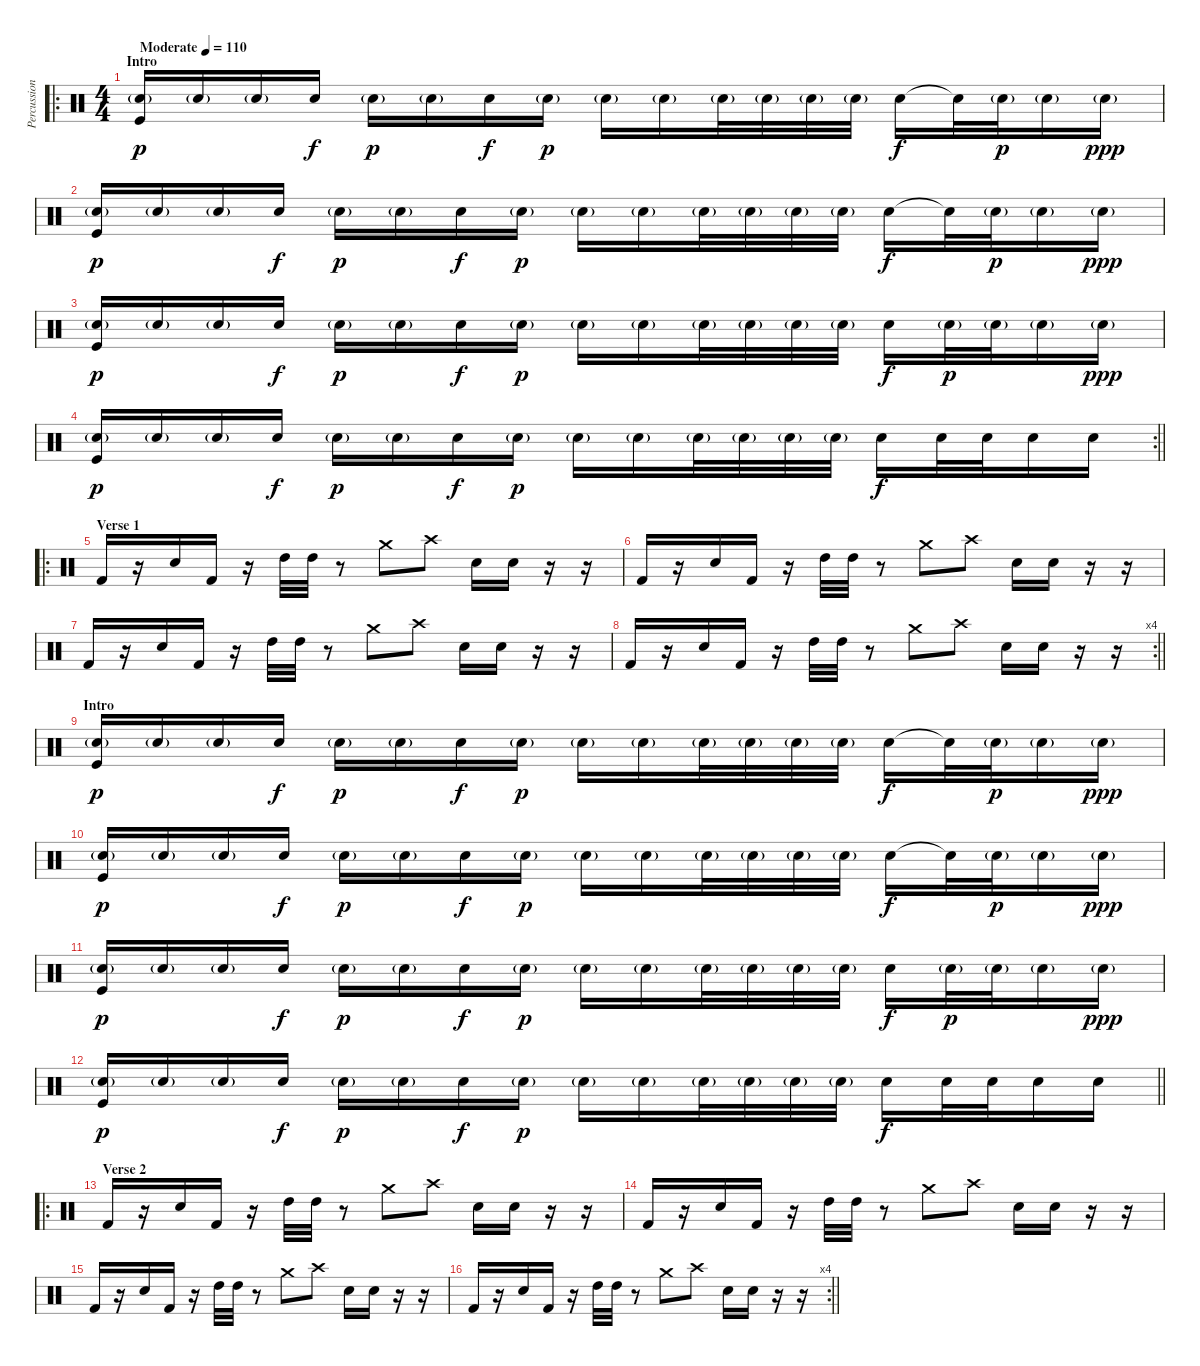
\track ("Percussion" "Percussion") {instrument percussion}
\staff {score}
\articulation defaults
\ro
\ts (4 4)
\section ("" "Intro")
\tempo (110 "Moderate")
\clef neutral
\ks c
("Electric Snare (hit)"{g} "Kick (hit)").16{dy p} "Electric Snare (hit)"{g}.16 "Electric Snare (hit)"{g}.16 "Electric Snare (hit)".16{dy f} "Electric Snare (hit)"{g}.16{dy p} "Electric Snare (hit)"{g}.16 "Electric Snare (hit)".16{dy f} "Electric Snare (hit)"{g}.16{dy p} "Electric Snare (hit)"{g}.16 "Electric Snare (hit)"{g}.16 "Electric Snare (hit)"{g}.32 "Electric Snare (hit)"{g}.32 "Electric Snare (hit)"{g}.32 "Electric Snare (hit)"{g}.32 "Electric Snare (hit)".16{dy f} "Electric Snare (hit)"{t}.32 "Electric Snare (hit)"{g}.32{dy p} "Electric Snare (hit)"{g}.16 "Electric Snare (hit)"{g}.16{dy ppp} |
("Electric Snare (hit)"{g} "Kick (hit)").16{dy p} "Electric Snare (hit)"{g}.16 "Electric Snare (hit)"{g}.16 "Electric Snare (hit)".16{dy f} "Electric Snare (hit)"{g}.16{dy p} "Electric Snare (hit)"{g}.16 "Electric Snare (hit)".16{dy f} "Electric Snare (hit)"{g}.16{dy p} "Electric Snare (hit)"{g}.16 "Electric Snare (hit)"{g}.16 "Electric Snare (hit)"{g}.32 "Electric Snare (hit)"{g}.32 "Electric Snare (hit)"{g}.32 "Electric Snare (hit)"{g}.32 "Electric Snare (hit)".16{dy f} "Electric Snare (hit)"{t}.32 "Electric Snare (hit)"{g}.32{dy p} "Electric Snare (hit)"{g}.16 "Electric Snare (hit)"{g}.16{dy ppp} |
("Electric Snare (hit)"{g} "Kick (hit)").16{dy p} "Electric Snare (hit)"{g}.16 "Electric Snare (hit)"{g}.16 "Electric Snare (hit)".16{dy f} "Electric Snare (hit)"{g}.16{dy p} "Electric Snare (hit)"{g}.16 "Electric Snare (hit)".16{dy f} "Electric Snare (hit)"{g}.16{dy p} "Electric Snare (hit)"{g}.16 "Electric Snare (hit)"{g}.16 "Electric Snare (hit)"{g}.32 "Electric Snare (hit)"{g}.32 "Electric Snare (hit)"{g}.32 "Electric Snare (hit)"{g}.32 "Electric Snare (hit)".16{dy f} "Electric Snare (hit)"{g}.32{dy p} "Electric Snare (hit)"{g}.32 "Electric Snare (hit)"{g}.16 "Electric Snare (hit)"{g}.16{dy ppp} |
\rc 2
\barLineRight lightlight
("Electric Snare (hit)"{g} "Kick (hit)").16{dy p} "Electric Snare (hit)"{g}.16 "Electric Snare (hit)"{g}.16 "Electric Snare (hit)".16{dy f} "Electric Snare (hit)"{g}.16{dy p} "Electric Snare (hit)"{g}.16 "Electric Snare (hit)".16{dy f} "Electric Snare (hit)"{g}.16{dy p} "Electric Snare (hit)"{g}.16 "Electric Snare (hit)"{g}.16 "Electric Snare (hit)"{g}.32 "Electric Snare (hit)"{g}.32 "Electric Snare (hit)"{g}.32 "Electric Snare (hit)"{g}.32 "Electric Snare (hit)".16{dy f} "Electric Snare (hit)".32 "Electric Snare (hit)".32 "Electric Snare (hit)".16 "Electric Snare (hit)".16 |
\ro
\section ("" "Verse 1")
"Kick (hit) 2".16 r.16 "Electric Snare (hit)".16 "Kick (hit) 2".16 r.16 "High Tom (hit)".32 "High Tom (hit)".32 r.8 "Crash medium (hit)".8 "Crash high (hit)".8 "Electric Snare (hit)".16 "Electric Snare (hit)".16 r.16 r.16 |
"Kick (hit) 2".16 r.16 "Electric Snare (hit)".16 "Kick (hit) 2".16 r.16 "High Tom (hit)".32 "High Tom (hit)".32 r.8 "Crash medium (hit)".8 "Crash high (hit)".8 "Electric Snare (hit)".16 "Electric Snare (hit)".16 r.16 r.16 |
"Kick (hit) 2".16 r.16 "Electric Snare (hit)".16 "Kick (hit) 2".16 r.16 "High Tom (hit)".32 "High Tom (hit)".32 r.8 "Crash medium (hit)".8 "Crash high (hit)".8 "Electric Snare (hit)".16 "Electric Snare (hit)".16 r.16 r.16 |
\rc 4
\barLineRight lightlight "Kick (hit) 2".16
r.16 "Electric Snare (hit)".16 "Kick (hit) 2".16 r.16 "High Tom (hit)".32 "High Tom (hit)".32 r.8 "Crash medium (hit)".8 "Crash high (hit)".8 "Electric Snare (hit)".16 "Electric Snare (hit)".16 r.16 r.16 |
\section ("" "Intro ")
("Electric Snare (hit)"{g} "Kick (hit)").16{dy p} "Electric Snare (hit)"{g}.16 "Electric Snare (hit)"{g}.16 "Electric Snare (hit)".16{dy f} "Electric Snare (hit)"{g}.16{dy p} "Electric Snare (hit)"{g}.16 "Electric Snare (hit)".16{dy f} "Electric Snare (hit)"{g}.16{dy p} "Electric Snare (hit)"{g}.16 "Electric Snare (hit)"{g}.16 "Electric Snare (hit)"{g}.32 "Electric Snare (hit)"{g}.32 "Electric Snare (hit)"{g}.32 "Electric Snare (hit)"{g}.32 "Electric Snare (hit)".16{dy f} "Electric Snare (hit)"{t}.32 "Electric Snare (hit)"{g}.32{dy p} "Electric Snare (hit)"{g}.16 "Electric Snare (hit)"{g}.16{dy ppp} |
("Electric Snare (hit)"{g} "Kick (hit)").16{dy p} "Electric Snare (hit)"{g}.16 "Electric Snare (hit)"{g}.16 "Electric Snare (hit)".16{dy f} "Electric Snare (hit)"{g}.16{dy p} "Electric Snare (hit)"{g}.16 "Electric Snare (hit)".16{dy f} "Electric Snare (hit)"{g}.16{dy p} "Electric Snare (hit)"{g}.16 "Electric Snare (hit)"{g}.16 "Electric Snare (hit)"{g}.32 "Electric Snare (hit)"{g}.32 "Electric Snare (hit)"{g}.32 "Electric Snare (hit)"{g}.32 "Electric Snare (hit)".16{dy f} "Electric Snare (hit)"{t}.32 "Electric Snare (hit)"{g}.32{dy p} "Electric Snare (hit)"{g}.16 "Electric Snare (hit)"{g}.16{dy ppp} |
("Electric Snare (hit)"{g} "Kick (hit)").16{dy p} "Electric Snare (hit)"{g}.16 "Electric Snare (hit)"{g}.16 "Electric Snare (hit)".16{dy f} "Electric Snare (hit)"{g}.16{dy p} "Electric Snare (hit)"{g}.16 "Electric Snare (hit)".16{dy f} "Electric Snare (hit)"{g}.16{dy p} "Electric Snare (hit)"{g}.16 "Electric Snare (hit)"{g}.16 "Electric Snare (hit)"{g}.32 "Electric Snare (hit)"{g}.32 "Electric Snare (hit)"{g}.32 "Electric Snare (hit)"{g}.32 "Electric Snare (hit)".16{dy f} "Electric Snare (hit)"{g}.32{dy p} "Electric Snare (hit)"{g}.32 "Electric Snare (hit)"{g}.16 "Electric Snare (hit)"{g}.16{dy ppp} |
\barLineRight lightlight
("Electric Snare (hit)"{g} "Kick (hit)").16{dy p} "Electric Snare (hit)"{g}.16 "Electric Snare (hit)"{g}.16 "Electric Snare (hit)".16{dy f} "Electric Snare (hit)"{g}.16{dy p} "Electric Snare (hit)"{g}.16 "Electric Snare (hit)".16{dy f} "Electric Snare (hit)"{g}.16{dy p} "Electric Snare (hit)"{g}.16 "Electric Snare (hit)"{g}.16 "Electric Snare (hit)"{g}.32 "Electric Snare (hit)"{g}.32 "Electric Snare (hit)"{g}.32 "Electric Snare (hit)"{g}.32 "Electric Snare (hit)".16{dy f} "Electric Snare (hit)".32 "Electric Snare (hit)".32 "Electric Snare (hit)".16 "Electric Snare (hit)".16 |
\ro
\section ("" "Verse 2 ")
"Kick (hit) 2".16 r.16 "Electric Snare (hit)".16 "Kick (hit) 2".16 r.16 "High Tom (hit)".32 "High Tom (hit)".32 r.8 "Crash medium (hit)".8 "Crash high (hit)".8 "Electric Snare (hit)".16 "Electric Snare (hit)".16 r.16 r.16 |
"Kick (hit) 2".16 r.16 "Electric Snare (hit)".16 "Kick (hit) 2".16 r.16 "High Tom (hit)".32 "High Tom (hit)".32 r.8 "Crash medium (hit)".8 "Crash high (hit)".8 "Electric Snare (hit)".16 "Electric Snare (hit)".16 r.16 r.16 |
"Kick (hit) 2".16 r.16 "Electric Snare (hit)".16 "Kick (hit) 2".16 r.16 "High Tom (hit)".32 "High Tom (hit)".32 r.8 "Crash medium (hit)".8 "Crash high (hit)".8 "Electric Snare (hit)".16 "Electric Snare (hit)".16 r.16 r.16 |
\rc 4
\barLineRight lightlight "Kick (hit) 2".16
r.16 "Electric Snare (hit)".16 "Kick (hit) 2".16 r.16 "High Tom (hit)".32 "High Tom (hit)".32 r.8 "Crash medium (hit)".8 "Crash high (hit)".8 "Electric Snare (hit)".16 "Electric Snare (hit)".16 r.16 r.16
